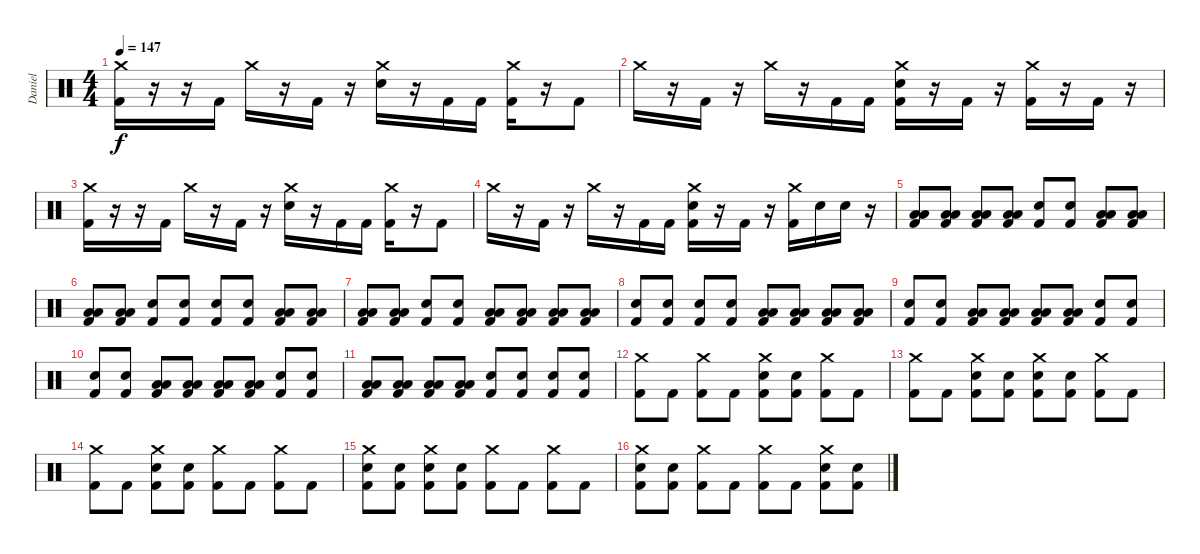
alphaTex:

\track ("Daniel" "Daniel") {instrument percussion}
\staff {score}
\articulation defaults
\ts (4 4)
\tempo 147
\clef neutral
\ks c
("Crash medium (hit)" "Kick (hit) 2").16{dy f} r.16 r.16 "Kick (hit) 2".16 "Crash medium (hit)".16 r.16 "Kick (hit) 2".16 r.16 ("Crash medium (hit)" "Electric Snare (hit)").16 r.16 "Kick (hit) 2".16 "Kick (hit) 2".16 ("Crash medium (hit)" "Kick (hit) 2").16 r.16 "Kick (hit) 2".8 |
"Crash medium (hit)".16 r.16 "Kick (hit) 2".16 r.16 "Crash medium (hit)".16 r.16 "Kick (hit) 2".16 "Kick (hit) 2".16 ("Crash medium (hit)" "Electric Snare (hit)" "Kick (hit) 2").16 r.16 "Kick (hit) 2".16 r.16 ("Crash medium (hit)" "Kick (hit) 2").16 r.16 "Kick (hit) 2".16 r.16 |
("Crash medium (hit)" "Kick (hit) 2").16 r.16 r.16 "Kick (hit) 2".16 "Crash medium (hit)".16 r.16 "Kick (hit) 2".16 r.16 ("Crash medium (hit)" "Electric Snare (hit)").16 r.16 "Kick (hit) 2".16 "Kick (hit) 2".16 ("Crash medium (hit)" "Kick (hit) 2").16 r.16 "Kick (hit) 2".8 |
"Crash medium (hit)".16 r.16 "Kick (hit) 2".16 r.16 "Crash medium (hit)".16 r.16 "Kick (hit) 2".16 "Kick (hit) 2".16 ("Crash medium (hit)" "Electric Snare (hit)" "Kick (hit) 2").16 r.16 "Kick (hit) 2".16 r.16 ("Crash medium (hit)" "Kick (hit) 2").16 "Electric Snare (hit)".16 "Electric Snare (hit)".16 r.16 |
("Low Tom (hit)" "Low Floor Tom (hit)" "Kick (hit) 2").8 ("Low Tom (hit)" "Low Floor Tom (hit)" "Kick (hit) 2").8 ("Low Tom (hit)" "Low Floor Tom (hit)" "Kick (hit) 2").8 ("Low Tom (hit)" "Low Floor Tom (hit)" "Kick (hit) 2").8 ("Electric Snare (hit)" "Kick (hit) 2").8 ("Electric Snare (hit)" "Kick (hit) 2").8 ("Low Tom (hit)" "Low Floor Tom (hit)" "Kick (hit) 2").8 ("Low Tom (hit)" "Low Floor Tom (hit)" "Kick (hit) 2").8 |
("Low Tom (hit)" "Low Floor Tom (hit)" "Kick (hit) 2").8 ("Low Tom (hit)" "Low Floor Tom (hit)" "Kick (hit) 2").8 ("Electric Snare (hit)" "Kick (hit) 2").8 ("Electric Snare (hit)" "Kick (hit) 2").8 ("Electric Snare (hit)" "Kick (hit) 2").8 ("Electric Snare (hit)" "Kick (hit) 2").8 ("Low Tom (hit)" "Low Floor Tom (hit)" "Kick (hit) 2").8 ("Low Tom (hit)" "Low Floor Tom (hit)" "Kick (hit) 2").8 |
("Low Tom (hit)" "Low Floor Tom (hit)" "Kick (hit) 2").8 ("Low Tom (hit)" "Low Floor Tom (hit)" "Kick (hit) 2").8 ("Electric Snare (hit)" "Kick (hit) 2").8 ("Electric Snare (hit)" "Kick (hit) 2").8 ("Low Tom (hit)" "Low Floor Tom (hit)" "Kick (hit) 2").8 ("Low Tom (hit)" "Low Floor Tom (hit)" "Kick (hit) 2").8 ("Low Tom (hit)" "Low Floor Tom (hit)" "Kick (hit) 2").8 ("Low Tom (hit)" "Low Floor Tom (hit)" "Kick (hit) 2").8 |
("Electric Snare (hit)" "Kick (hit) 2").8 ("Electric Snare (hit)" "Kick (hit) 2").8 ("Electric Snare (hit)" "Kick (hit) 2").8 ("Electric Snare (hit)" "Kick (hit) 2").8 ("Low Tom (hit)" "Low Floor Tom (hit)" "Kick (hit) 2").8 ("Low Tom (hit)" "Low Floor Tom (hit)" "Kick (hit) 2").8 ("Low Tom (hit)" "Low Floor Tom (hit)" "Kick (hit) 2").8 ("Low Tom (hit)" "Low Floor Tom (hit)" "Kick (hit) 2").8 |
("Electric Snare (hit)" "Kick (hit) 2").8 ("Electric Snare (hit)" "Kick (hit) 2").8 ("Low Tom (hit)" "Low Floor Tom (hit)" "Kick (hit) 2").8 ("Low Tom (hit)" "Low Floor Tom (hit)" "Kick (hit) 2").8 ("Low Tom (hit)" "Low Floor Tom (hit)" "Kick (hit) 2").8 ("Low Tom (hit)" "Low Floor Tom (hit)" "Kick (hit) 2").8 ("Electric Snare (hit)" "Kick (hit) 2").8 ("Electric Snare (hit)" "Kick (hit) 2").8 |
("Electric Snare (hit)" "Kick (hit) 2").8 ("Electric Snare (hit)" "Kick (hit) 2").8 ("Low Tom (hit)" "Low Floor Tom (hit)" "Kick (hit) 2").8 ("Low Tom (hit)" "Low Floor Tom (hit)" "Kick (hit) 2").8 ("Low Tom (hit)" "Low Floor Tom (hit)" "Kick (hit) 2").8 ("Low Tom (hit)" "Low Floor Tom (hit)" "Kick (hit) 2").8 ("Electric Snare (hit)" "Kick (hit) 2").8 ("Electric Snare (hit)" "Kick (hit) 2").8 |
("Low Tom (hit)" "Low Floor Tom (hit)" "Kick (hit) 2").8 ("Low Tom (hit)" "Low Floor Tom (hit)" "Kick (hit) 2").8 ("Low Tom (hit)" "Low Floor Tom (hit)" "Kick (hit) 2").8 ("Low Tom (hit)" "Low Floor Tom (hit)" "Kick (hit) 2").8 ("Electric Snare (hit)" "Kick (hit) 2").8 ("Electric Snare (hit)" "Kick (hit) 2").8 ("Electric Snare (hit)" "Kick (hit) 2").8 ("Electric Snare (hit)" "Kick (hit) 2").8 |
("Crash medium (hit)" "Kick (hit) 2").8 "Kick (hit) 2".8 ("Crash medium (hit)" "Kick (hit) 2").8 "Kick (hit) 2".8 ("Crash medium (hit)" "Electric Snare (hit)" "Kick (hit) 2").8 ("Electric Snare (hit)" "Kick (hit) 2").8 ("Crash medium (hit)" "Kick (hit) 2").8 "Kick (hit) 2".8 |
("Crash medium (hit)" "Kick (hit) 2").8 "Kick (hit) 2".8 ("Crash medium (hit)" "Electric Snare (hit)" "Kick (hit) 2").8 ("Electric Snare (hit)" "Kick (hit) 2").8 ("Crash medium (hit)" "Electric Snare (hit)" "Kick (hit) 2").8 ("Electric Snare (hit)" "Kick (hit) 2").8 ("Crash medium (hit)" "Kick (hit) 2").8 "Kick (hit) 2".8 |
("Crash medium (hit)" "Kick (hit) 2").8 "Kick (hit) 2".8 ("Crash medium (hit)" "Electric Snare (hit)" "Kick (hit) 2").8 ("Electric Snare (hit)" "Kick (hit) 2").8 ("Crash medium (hit)" "Kick (hit) 2").8 "Kick (hit) 2".8 ("Crash medium (hit)" "Kick (hit) 2").8 "Kick (hit) 2".8 |
("Crash medium (hit)" "Electric Snare (hit)" "Kick (hit) 2").8 ("Electric Snare (hit)" "Kick (hit) 2").8 ("Crash medium (hit)" "Electric Snare (hit)" "Kick (hit) 2").8 ("Electric Snare (hit)" "Kick (hit) 2").8 ("Crash medium (hit)" "Kick (hit) 2").8 "Kick (hit) 2".8 ("Crash medium (hit)" "Kick (hit) 2").8 "Kick (hit) 2".8 |
("Crash medium (hit)" "Electric Snare (hit)" "Kick (hit) 2").8 ("Electric Snare (hit)" "Kick (hit) 2").8 ("Crash medium (hit)" "Kick (hit) 2").8 "Kick (hit) 2".8 ("Crash medium (hit)" "Kick (hit) 2").8 "Kick (hit) 2".8 ("Crash medium (hit)" "Electric Snare (hit)" "Kick (hit) 2").8 ("Electric Snare (hit)" "Kick (hit) 2").8
